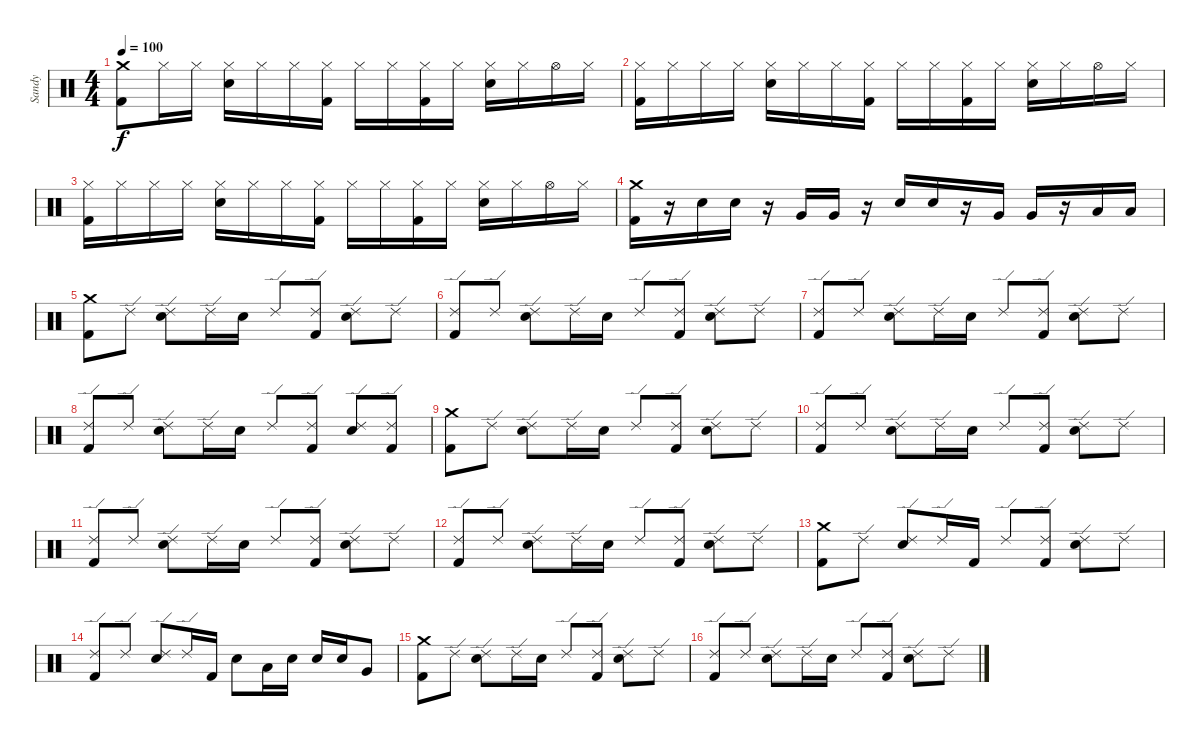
\track ("Sandy" "Sandy") {instrument percussion}
\staff {score}
\articulation defaults
\ts (4 4)
\tempo 100
\clef neutral
\ks c
("Crash medium (hit)" "Kick (hit) 2").8{dy f} "Hi-Hat (closed)".16 "Hi-Hat (closed)".16 ("Hi-Hat (closed)" "Snare (hit) 2").16 "Hi-Hat (closed)".16 "Hi-Hat (closed)".16 ("Hi-Hat (closed)" "Kick (hit) 2").16 "Hi-Hat (closed)".16 "Hi-Hat (closed)".16 ("Hi-Hat (closed)" "Kick (hit) 2").16 "Hi-Hat (closed)".16 ("Hi-Hat (closed)" "Snare (hit) 2").16 "Hi-Hat (closed)".16 "Hi-Hat (open)".16 "Hi-Hat (closed)".16 |
("Hi-Hat (closed)" "Kick (hit) 2").16 "Hi-Hat (closed)".16 "Hi-Hat (closed)".16 "Hi-Hat (closed)".16 ("Hi-Hat (closed)" "Snare (hit) 2").16 "Hi-Hat (closed)".16 "Hi-Hat (closed)".16 ("Hi-Hat (closed)" "Kick (hit) 2").16 "Hi-Hat (closed)".16 "Hi-Hat (closed)".16 ("Hi-Hat (closed)" "Kick (hit) 2").16 "Hi-Hat (closed)".16 ("Hi-Hat (closed)" "Snare (hit) 2").16 "Hi-Hat (closed)".16 "Hi-Hat (open)".16 "Hi-Hat (closed)".16 |
("Hi-Hat (closed)" "Kick (hit) 2").16 "Hi-Hat (closed)".16 "Hi-Hat (closed)".16 "Hi-Hat (closed)".16 ("Hi-Hat (closed)" "Snare (hit) 2").16 "Hi-Hat (closed)".16 "Hi-Hat (closed)".16 ("Hi-Hat (closed)" "Kick (hit) 2").16 "Hi-Hat (closed)".16 "Hi-Hat (closed)".16 ("Hi-Hat (closed)" "Kick (hit) 2").16 "Hi-Hat (closed)".16 ("Hi-Hat (closed)" "Snare (hit) 2").16 "Hi-Hat (closed)".16 "Hi-Hat (open)".16 "Hi-Hat (closed)".16 |
("Crash medium (hit)" "Kick (hit) 2").16 r.16 "Electric Snare (hit)".16 "Electric Snare (hit)".16 r.16 "Very Low Tom (hit)".16 "Very Low Tom (hit)".16 r.16 "Electric Snare (hit)".16 "Electric Snare (hit)".16 r.16 "Very Low Tom (hit)".16 "Very Low Tom (hit)".16 r.16 "Low Floor Tom (hit)".16 "Low Floor Tom (hit)".16 |
("Crash medium (hit)" "Kick (hit) 2").8 "Ride (edge) 2".8 ("Ride (edge) 2" "Snare (hit) 2").8 "Ride (edge) 2".16 "Snare (hit) 2".16 "Ride (edge) 2".8 ("Ride (edge) 2" "Kick (hit) 2").8 ("Ride (edge) 2" "Snare (hit) 2").8 "Ride (edge) 2".8 |
("Ride (edge) 2" "Kick (hit) 2").8 "Ride (edge) 2".8 ("Ride (edge) 2" "Snare (hit) 2").8 "Ride (edge) 2".16 "Snare (hit) 2".16 "Ride (edge) 2".8 ("Ride (edge) 2" "Kick (hit) 2").8 ("Ride (edge) 2" "Snare (hit) 2").8 "Ride (edge) 2".8 |
("Ride (edge) 2" "Kick (hit) 2").8 "Ride (edge) 2".8 ("Ride (edge) 2" "Snare (hit) 2").8 "Ride (edge) 2".16 "Snare (hit) 2".16 "Ride (edge) 2".8 ("Ride (edge) 2" "Kick (hit) 2").8 ("Ride (edge) 2" "Snare (hit) 2").8 "Ride (edge) 2".8 |
("Ride (edge) 2" "Kick (hit) 2").8 "Ride (edge) 2".8 ("Ride (edge) 2" "Snare (hit) 2").8 "Ride (edge) 2".16 "Snare (hit) 2".16 "Ride (edge) 2".8 ("Ride (edge) 2" "Kick (hit) 2").8 ("Ride (edge) 2" "Snare (hit) 2").8 ("Ride (edge) 2" "Kick (hit) 2").8 |
("Crash medium (hit)" "Kick (hit) 2").8 "Ride (edge) 2".8 ("Ride (edge) 2" "Snare (hit) 2").8 "Ride (edge) 2".16 "Snare (hit) 2".16 "Ride (edge) 2".8 ("Ride (edge) 2" "Kick (hit) 2").8 ("Ride (edge) 2" "Snare (hit) 2").8 "Ride (edge) 2".8 |
("Ride (edge) 2" "Kick (hit) 2").8 "Ride (edge) 2".8 ("Ride (edge) 2" "Snare (hit) 2").8 "Ride (edge) 2".16 "Snare (hit) 2".16 "Ride (edge) 2".8 ("Ride (edge) 2" "Kick (hit) 2").8 ("Ride (edge) 2" "Snare (hit) 2").8 "Ride (edge) 2".8 |
("Ride (edge) 2" "Kick (hit) 2").8 "Ride (edge) 2".8 ("Ride (edge) 2" "Snare (hit) 2").8 "Ride (edge) 2".16 "Snare (hit) 2".16 "Ride (edge) 2".8 ("Ride (edge) 2" "Kick (hit) 2").8 ("Ride (edge) 2" "Snare (hit) 2").8 "Ride (edge) 2".8 |
("Ride (edge) 2" "Kick (hit) 2").8 "Ride (edge) 2".8 ("Ride (edge) 2" "Snare (hit) 2").8 "Ride (edge) 2".16 "Snare (hit) 2".16 "Ride (edge) 2".8 ("Ride (edge) 2" "Kick (hit) 2").8 ("Ride (edge) 2" "Snare (hit) 2").8 "Ride (edge) 2".8 |
("Crash medium (hit)" "Kick (hit) 2").8 "Ride (edge) 2".8 ("Ride (edge) 2" "Snare (hit) 2").8 "Ride (edge) 2".16 "Kick (hit) 2".16 "Ride (edge) 2".8 ("Ride (edge) 2" "Kick (hit) 2").8 ("Ride (edge) 2" "Snare (hit) 2").8 "Ride (edge) 2".8 |
("Ride (edge) 2" "Kick (hit) 2").8 "Ride (edge) 2".8 ("Ride (edge) 2" "Snare (hit) 2").8 "Ride (edge) 2".16 "Kick (hit) 2".16 "Electric Snare (hit)".8 "Low Tom (hit)".16 "Electric Snare (hit)".16 "Electric Snare (hit)".16 "Electric Snare (hit)".16 "Very Low Tom (hit)".8 |
("Crash medium (hit)" "Kick (hit) 2").8 "Ride (edge) 2".8 ("Ride (edge) 2" "Snare (hit) 2").8 "Ride (edge) 2".16 "Snare (hit) 2".16 "Ride (edge) 2".8 ("Ride (edge) 2" "Kick (hit) 2").8 ("Ride (edge) 2" "Snare (hit) 2").8 "Ride (edge) 2".8 |
("Ride (edge) 2" "Kick (hit) 2").8 "Ride (edge) 2".8 ("Ride (edge) 2" "Snare (hit) 2").8 "Ride (edge) 2".16 "Snare (hit) 2".16 "Ride (edge) 2".8 ("Ride (edge) 2" "Kick (hit) 2").8 ("Ride (edge) 2" "Snare (hit) 2").8 "Ride (edge) 2".8
